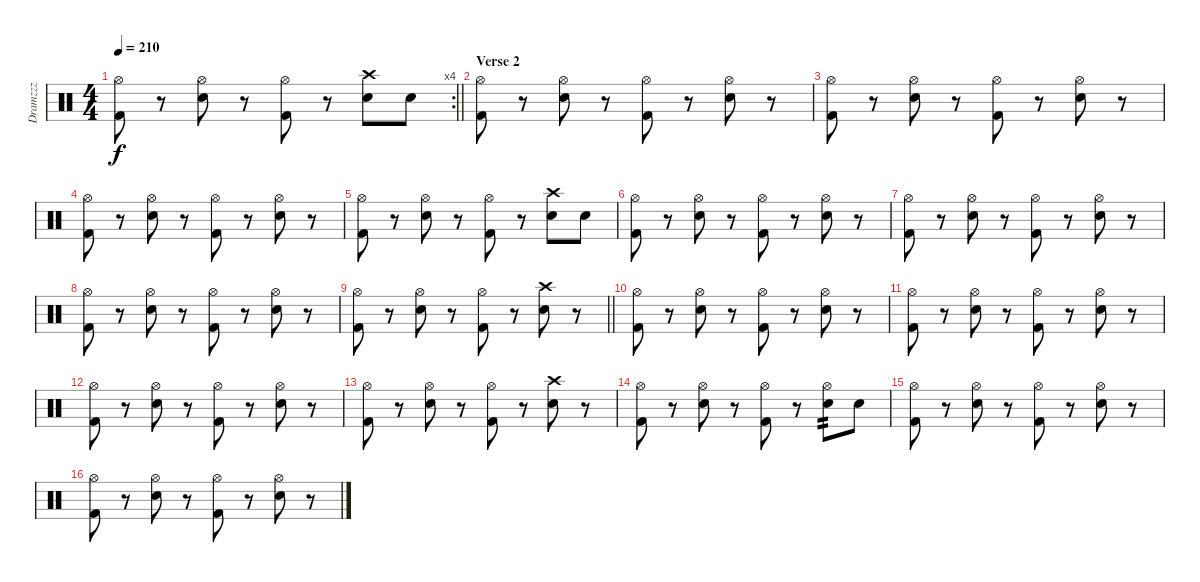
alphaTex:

\track ("Dramzzz" "Dramzzz") {instrument percussion}
\staff {score}
\articulation defaults
\rc 4
\ts (4 4)
\tempo 210
\clef neutral
\barLineRight lightlight
\ks c
("Hi-Hat (open)" "Kick (hit) 2").8{dy f} r.8 ("Hi-Hat (open)" "Electric Snare (hit)").8 r.8 ("Hi-Hat (open)" "Kick (hit) 2").8 r.8 ("Crash high (hit)" "Electric Snare (hit)").8 "Electric Snare (hit)".8 |
\section ("" "Verse 2")
("Hi-Hat (open)" "Kick (hit) 2").8 r.8 ("Hi-Hat (open)" "Electric Snare (hit)").8 r.8 ("Hi-Hat (open)" "Kick (hit) 2").8 r.8 ("Hi-Hat (open)" "Electric Snare (hit)").8 r.8 |
("Hi-Hat (open)" "Kick (hit) 2").8 r.8 ("Hi-Hat (open)" "Electric Snare (hit)").8 r.8 ("Hi-Hat (open)" "Kick (hit) 2").8 r.8 ("Hi-Hat (open)" "Electric Snare (hit)").8 r.8 |
("Hi-Hat (open)" "Kick (hit) 2").8 r.8 ("Hi-Hat (open)" "Electric Snare (hit)").8 r.8 ("Hi-Hat (open)" "Kick (hit) 2").8 r.8 ("Hi-Hat (open)" "Electric Snare (hit)").8 r.8 |
("Hi-Hat (open)" "Kick (hit) 2").8 r.8 ("Hi-Hat (open)" "Electric Snare (hit)").8 r.8 ("Hi-Hat (open)" "Kick (hit) 2").8 r.8 ("Crash high (hit)" "Electric Snare (hit)").8 "Electric Snare (hit)".8 |
("Hi-Hat (open)" "Kick (hit) 2").8 r.8 ("Hi-Hat (open)" "Electric Snare (hit)").8 r.8 ("Hi-Hat (open)" "Kick (hit) 2").8 r.8 ("Hi-Hat (open)" "Electric Snare (hit)").8 r.8 |
("Hi-Hat (open)" "Kick (hit) 2").8 r.8 ("Hi-Hat (open)" "Electric Snare (hit)").8 r.8 ("Hi-Hat (open)" "Kick (hit) 2").8 r.8 ("Hi-Hat (open)" "Electric Snare (hit)").8 r.8 |
("Hi-Hat (open)" "Kick (hit) 2").8 r.8 ("Hi-Hat (open)" "Electric Snare (hit)").8 r.8 ("Hi-Hat (open)" "Kick (hit) 2").8 r.8 ("Hi-Hat (open)" "Electric Snare (hit)").8 r.8 |
\barLineRight lightlight
("Hi-Hat (open)" "Kick (hit) 2").8 r.8 ("Hi-Hat (open)" "Electric Snare (hit)").8 r.8 ("Hi-Hat (open)" "Kick (hit) 2").8 r.8 ("Crash high (hit)" "Electric Snare (hit)").8 r.8 |
("Hi-Hat (open)" "Kick (hit) 2").8 r.8 ("Hi-Hat (open)" "Electric Snare (hit)").8 r.8 ("Hi-Hat (open)" "Kick (hit) 2").8 r.8 ("Hi-Hat (open)" "Electric Snare (hit)").8 r.8 |
("Hi-Hat (open)" "Kick (hit) 2").8 r.8 ("Hi-Hat (open)" "Electric Snare (hit)").8 r.8 ("Hi-Hat (open)" "Kick (hit) 2").8 r.8 ("Hi-Hat (open)" "Electric Snare (hit)").8 r.8 |
("Hi-Hat (open)" "Kick (hit) 2").8 r.8 ("Hi-Hat (open)" "Electric Snare (hit)").8 r.8 ("Hi-Hat (open)" "Kick (hit) 2").8 r.8 ("Hi-Hat (open)" "Electric Snare (hit)").8 r.8 |
("Hi-Hat (open)" "Kick (hit) 2").8 r.8 ("Hi-Hat (open)" "Electric Snare (hit)").8 r.8 ("Hi-Hat (open)" "Kick (hit) 2").8 r.8 ("Crash high (hit)" "Electric Snare (hit)").8 r.8 |
("Hi-Hat (open)" "Kick (hit) 2").8 r.8 ("Hi-Hat (open)" "Electric Snare (hit)").8 r.8 ("Hi-Hat (open)" "Kick (hit) 2").8 r.8 ("Hi-Hat (open)" "Electric Snare (hit)").8{tp 2} "Electric Snare (hit)".8 |
("Hi-Hat (open)" "Kick (hit) 2").8 r.8 ("Hi-Hat (open)" "Electric Snare (hit)").8 r.8 ("Hi-Hat (open)" "Kick (hit) 2").8 r.8 ("Hi-Hat (open)" "Electric Snare (hit)").8 r.8 |
("Hi-Hat (open)" "Kick (hit) 2").8 r.8 ("Hi-Hat (open)" "Electric Snare (hit)").8 r.8 ("Hi-Hat (open)" "Kick (hit) 2").8 r.8 ("Hi-Hat (open)" "Electric Snare (hit)").8 r.8
